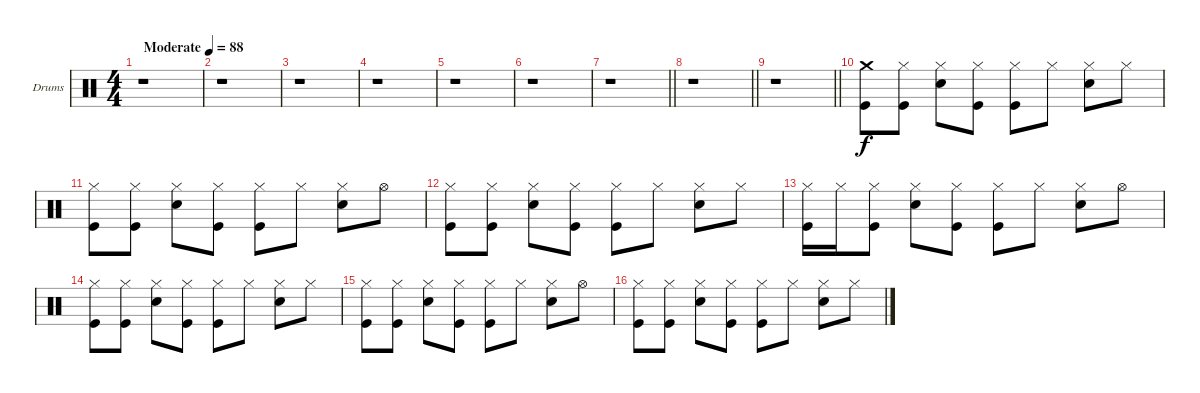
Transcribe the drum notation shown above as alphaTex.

\bracketExtendMode groupsimilarinstruments
\firstSystemTrackNameOrientation horizontal
\otherSystemsTrackNameOrientation horizontal
\track ("Drumkit" "Drums") {instrument percussion}
\staff {score}
\articulation defaults
\ts (4 4)
\beaming (8 2 2 2 2)
\tempo (88 "Moderate")
\clef neutral
\ks c
r.1{dy f} |
r.1 |
r.1 |
r.1 |
r.1 |
r.1 |
\barLineRight lightlight
r.1 |
\barLineRight lightlight
r.1 |
\barLineRight lightlight
r.1 |
("Kick (hit)" "Crash medium (hit)").8 ("Kick (hit)" "Hi-Hat (closed)").8 ("Snare (hit) 2" "Hi-Hat (closed)").8 ("Kick (hit)" "Hi-Hat (closed)").8 ("Kick (hit)" "Hi-Hat (closed)").8 "Hi-Hat (closed)".8 ("Snare (hit) 2" "Hi-Hat (closed)").8 "Hi-Hat (closed)".8 |
("Kick (hit)" "Hi-Hat (closed)").8 ("Kick (hit)" "Hi-Hat (closed)").8 ("Snare (hit) 2" "Hi-Hat (closed)").8 ("Kick (hit)" "Hi-Hat (closed)").8 ("Kick (hit)" "Hi-Hat (closed)").8 "Hi-Hat (closed)".8 ("Snare (hit) 2" "Hi-Hat (closed)").8 "Hi-Hat (open)".8 |
("Kick (hit)" "Hi-Hat (closed)").8 ("Kick (hit)" "Hi-Hat (closed)").8 ("Snare (hit) 2" "Hi-Hat (closed)").8 ("Kick (hit)" "Hi-Hat (closed)").8 ("Kick (hit)" "Hi-Hat (closed)").8 "Hi-Hat (closed)".8 ("Snare (hit) 2" "Hi-Hat (closed)").8 "Hi-Hat (closed)".8 |
("Kick (hit)" "Hi-Hat (closed)").16 "Hi-Hat (closed)".16 ("Kick (hit)" "Hi-Hat (closed)").8 ("Snare (hit) 2" "Hi-Hat (closed)").8 ("Kick (hit)" "Hi-Hat (closed)").8 ("Kick (hit)" "Hi-Hat (closed)").8 "Hi-Hat (closed)".8 ("Snare (hit) 2" "Hi-Hat (closed)").8 "Hi-Hat (open)".8 |
("Kick (hit)" "Hi-Hat (closed)").8 ("Kick (hit)" "Hi-Hat (closed)").8 ("Snare (hit) 2" "Hi-Hat (closed)").8 ("Kick (hit)" "Hi-Hat (closed)").8 ("Kick (hit)" "Hi-Hat (closed)").8 "Hi-Hat (closed)".8 ("Snare (hit) 2" "Hi-Hat (closed)").8 "Hi-Hat (closed)".8 |
("Kick (hit)" "Hi-Hat (closed)").8 ("Kick (hit)" "Hi-Hat (closed)").8 ("Snare (hit) 2" "Hi-Hat (closed)").8 ("Kick (hit)" "Hi-Hat (closed)").8 ("Kick (hit)" "Hi-Hat (closed)").8 "Hi-Hat (closed)".8 ("Snare (hit) 2" "Hi-Hat (closed)").8 "Hi-Hat (open)".8 |
("Kick (hit)" "Hi-Hat (closed)").8 ("Kick (hit)" "Hi-Hat (closed)").8 ("Snare (hit) 2" "Hi-Hat (closed)").8 ("Kick (hit)" "Hi-Hat (closed)").8 ("Kick (hit)" "Hi-Hat (closed)").8 "Hi-Hat (closed)".8 ("Snare (hit) 2" "Hi-Hat (closed)").8 "Hi-Hat (closed)".8
